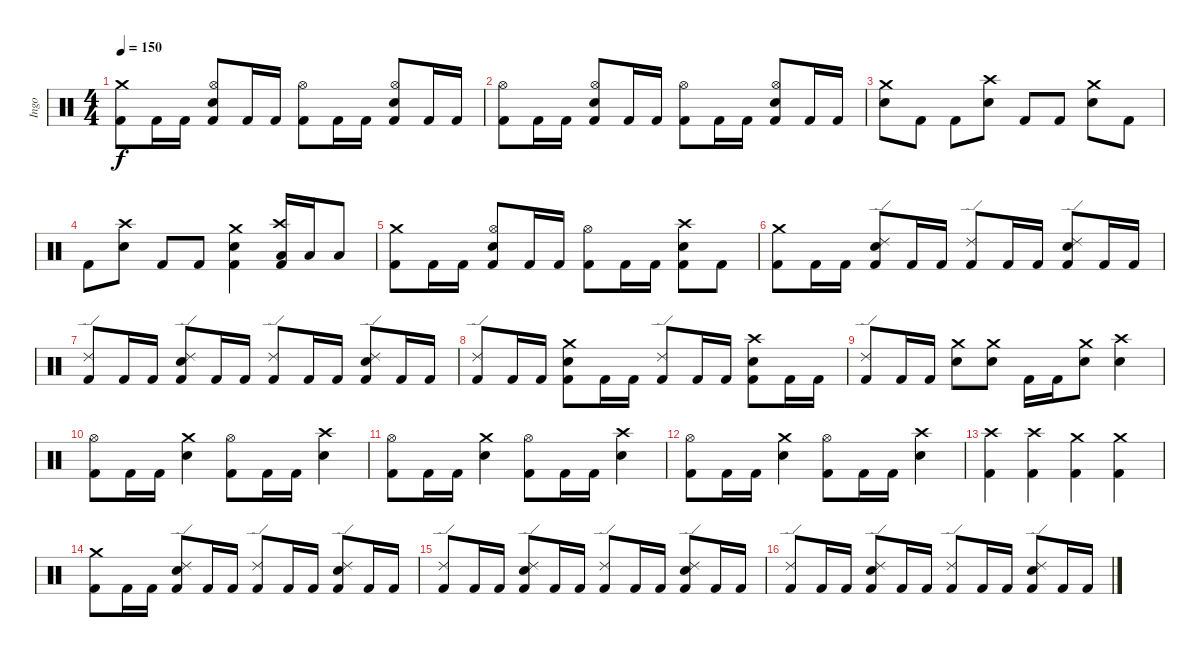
\track ("Ingo" "Ingo") {instrument percussion}
\staff {score}
\articulation defaults
\ts (4 4)
\tempo 150
\clef neutral
\ks c
("Crash medium (hit)" "Kick (hit) 2").8{dy f} "Kick (hit) 2".16 "Kick (hit) 2".16 ("Hi-Hat (open)" "Electric Snare (hit)" "Kick (hit) 2").8 "Kick (hit) 2".16 "Kick (hit) 2".16 ("Hi-Hat (open)" "Kick (hit) 2").8 "Kick (hit) 2".16 "Kick (hit) 2".16 ("Hi-Hat (open)" "Electric Snare (hit)" "Kick (hit) 2").8 "Kick (hit) 2".16 "Kick (hit) 2".16 |
("Hi-Hat (open)" "Kick (hit) 2").8 "Kick (hit) 2".16 "Kick (hit) 2".16 ("Hi-Hat (open)" "Electric Snare (hit)" "Kick (hit) 2").8 "Kick (hit) 2".16 "Kick (hit) 2".16 ("Hi-Hat (open)" "Kick (hit) 2").8 "Kick (hit) 2".16 "Kick (hit) 2".16 ("Hi-Hat (open)" "Electric Snare (hit)" "Kick (hit) 2").8 "Kick (hit) 2".16 "Kick (hit) 2".16 |
("Crash medium (hit)" "Electric Snare (hit)").8 "Kick (hit) 2".8 "Kick (hit) 2".8 ("Crash high (hit)" "Electric Snare (hit)").8 "Kick (hit) 2".8 "Kick (hit) 2".8 ("Crash medium (hit)" "Electric Snare (hit)").8 "Kick (hit) 2".8 |
"Kick (hit) 2".8 ("Crash high (hit)" "Electric Snare (hit)").8 "Kick (hit) 2".8 "Kick (hit) 2".8 ("Crash medium (hit)" "Electric Snare (hit)" "Kick (hit) 2").4 ("Crash high (hit)" "Low Tom (hit)" "Kick (hit) 2").16 "Low Tom (hit)".16 "Low Tom (hit)".8 |
("Crash medium (hit)" "Kick (hit) 2").8 "Kick (hit) 2".16 "Kick (hit) 2".16 ("Hi-Hat (open)" "Electric Snare (hit)" "Kick (hit) 2").8 "Kick (hit) 2".16 "Kick (hit) 2".16 ("Hi-Hat (open)" "Kick (hit) 2").8 "Kick (hit) 2".16 "Kick (hit) 2".16 ("Crash high (hit)" "Electric Snare (hit)" "Kick (hit) 2").8 "Kick (hit) 2".8 |
("Crash medium (hit)" "Kick (hit) 2").8 "Kick (hit) 2".16 "Kick (hit) 2".16 ("Ride (edge) 2" "Electric Snare (hit)" "Kick (hit) 2").8 "Kick (hit) 2".16 "Kick (hit) 2".16 ("Ride (edge) 2" "Kick (hit) 2").8 "Kick (hit) 2".16 "Kick (hit) 2".16 ("Ride (edge) 2" "Electric Snare (hit)" "Kick (hit) 2").8 "Kick (hit) 2".16 "Kick (hit) 2".16 |
("Ride (edge) 2" "Kick (hit) 2").8 "Kick (hit) 2".16 "Kick (hit) 2".16 ("Ride (edge) 2" "Electric Snare (hit)" "Kick (hit) 2").8 "Kick (hit) 2".16 "Kick (hit) 2".16 ("Ride (edge) 2" "Kick (hit) 2").8 "Kick (hit) 2".16 "Kick (hit) 2".16 ("Ride (edge) 2" "Electric Snare (hit)" "Kick (hit) 2").8 "Kick (hit) 2".16 "Kick (hit) 2".16 |
("Ride (edge) 2" "Kick (hit) 2").8 "Kick (hit) 2".16 "Kick (hit) 2".16 ("Crash medium (hit)" "Electric Snare (hit)" "Kick (hit) 2").8 "Kick (hit) 2".16 "Kick (hit) 2".16 ("Ride (edge) 2" "Kick (hit) 2").8 "Kick (hit) 2".16 "Kick (hit) 2".16 ("Crash high (hit)" "Electric Snare (hit)" "Kick (hit) 2").8 "Kick (hit) 2".16 "Kick (hit) 2".16 |
("Ride (edge) 2" "Kick (hit) 2").8 "Kick (hit) 2".16 "Kick (hit) 2".16 ("Crash medium (hit)" "Electric Snare (hit)").8 ("Crash medium (hit)" "Electric Snare (hit)").8 "Kick (hit) 2".16 "Kick (hit) 2".16 ("Crash medium (hit)" "Electric Snare (hit)").8 ("Crash high (hit)" "Electric Snare (hit)").4 |
("Hi-Hat (open)" "Kick (hit) 2").8 "Kick (hit) 2".16 "Kick (hit) 2".16 ("Crash medium (hit)" "Electric Snare (hit)").4 ("Hi-Hat (open)" "Kick (hit) 2").8 "Kick (hit) 2".16 "Kick (hit) 2".16 ("Crash high (hit)" "Electric Snare (hit)").4 |
("Hi-Hat (open)" "Kick (hit) 2").8 "Kick (hit) 2".16 "Kick (hit) 2".16 ("Crash medium (hit)" "Electric Snare (hit)").4 ("Hi-Hat (open)" "Kick (hit) 2").8 "Kick (hit) 2".16 "Kick (hit) 2".16 ("Crash high (hit)" "Electric Snare (hit)").4 |
("Hi-Hat (open)" "Kick (hit) 2").8 "Kick (hit) 2".16 "Kick (hit) 2".16 ("Crash medium (hit)" "Electric Snare (hit)").4 ("Hi-Hat (open)" "Kick (hit) 2").8 "Kick (hit) 2".16 "Kick (hit) 2".16 ("Crash high (hit)" "Electric Snare (hit)").4 |
("Crash high (hit)" "Kick (hit) 2").4 ("Crash high (hit)" "Kick (hit) 2").4 ("Crash medium (hit)" "Kick (hit) 2").4 ("Crash medium (hit)" "Kick (hit) 2").4 |
("Crash medium (hit)" "Kick (hit) 2").8 "Kick (hit) 2".16 "Kick (hit) 2".16 ("Ride (edge) 2" "Electric Snare (hit)" "Kick (hit) 2").8 "Kick (hit) 2".16 "Kick (hit) 2".16 ("Ride (edge) 2" "Kick (hit) 2").8 "Kick (hit) 2".16 "Kick (hit) 2".16 ("Ride (edge) 2" "Electric Snare (hit)" "Kick (hit) 2").8 "Kick (hit) 2".16 "Kick (hit) 2".16 |
("Ride (edge) 2" "Kick (hit) 2").8 "Kick (hit) 2".16 "Kick (hit) 2".16 ("Ride (edge) 2" "Electric Snare (hit)" "Kick (hit) 2").8 "Kick (hit) 2".16 "Kick (hit) 2".16 ("Ride (edge) 2" "Kick (hit) 2").8 "Kick (hit) 2".16 "Kick (hit) 2".16 ("Ride (edge) 2" "Electric Snare (hit)" "Kick (hit) 2").8 "Kick (hit) 2".16 "Kick (hit) 2".16 |
("Ride (edge) 2" "Kick (hit) 2").8 "Kick (hit) 2".16 "Kick (hit) 2".16 ("Ride (edge) 2" "Electric Snare (hit)" "Kick (hit) 2").8 "Kick (hit) 2".16 "Kick (hit) 2".16 ("Ride (edge) 2" "Kick (hit) 2").8 "Kick (hit) 2".16 "Kick (hit) 2".16 ("Ride (edge) 2" "Electric Snare (hit)" "Kick (hit) 2").8 "Kick (hit) 2".16 "Kick (hit) 2".16
